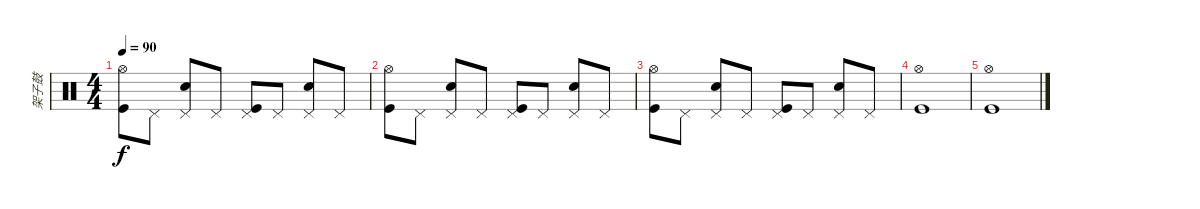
\track ("架子鼓" "架子鼓") {instrument percussion}
\staff {score}
\articulation defaults
\ts (4 4)
\tempo 90
\clef neutral
\ks c
("Hi-Hat (open)" "Kick (hit)").8{dy f} "Pedal Hi-Hat (hit)".8 ("Snare (hit) 2" "Pedal Hi-Hat (hit)").8 "Pedal Hi-Hat (hit)".8 ("Pedal Hi-Hat (hit)" "Kick (hit)").8 "Pedal Hi-Hat (hit)".8 ("Snare (hit) 2" "Pedal Hi-Hat (hit)").8 "Pedal Hi-Hat (hit)".8 |
("Hi-Hat (open)" "Kick (hit)").8 "Pedal Hi-Hat (hit)".8 ("Snare (hit) 2" "Pedal Hi-Hat (hit)").8 "Pedal Hi-Hat (hit)".8 ("Pedal Hi-Hat (hit)" "Kick (hit)").8 "Pedal Hi-Hat (hit)".8 ("Snare (hit) 2" "Pedal Hi-Hat (hit)").8 "Pedal Hi-Hat (hit)".8 |
("Hi-Hat (open)" "Kick (hit)").8 "Pedal Hi-Hat (hit)".8 ("Snare (hit) 2" "Pedal Hi-Hat (hit)").8 "Pedal Hi-Hat (hit)".8 ("Pedal Hi-Hat (hit)" "Kick (hit)").8 "Pedal Hi-Hat (hit)".8 ("Snare (hit) 2" "Pedal Hi-Hat (hit)").8 "Pedal Hi-Hat (hit)".8 |
("Hi-Hat (open)" "Kick (hit)").1 |
("Kick (hit)" "Hi-Hat (open)").1
